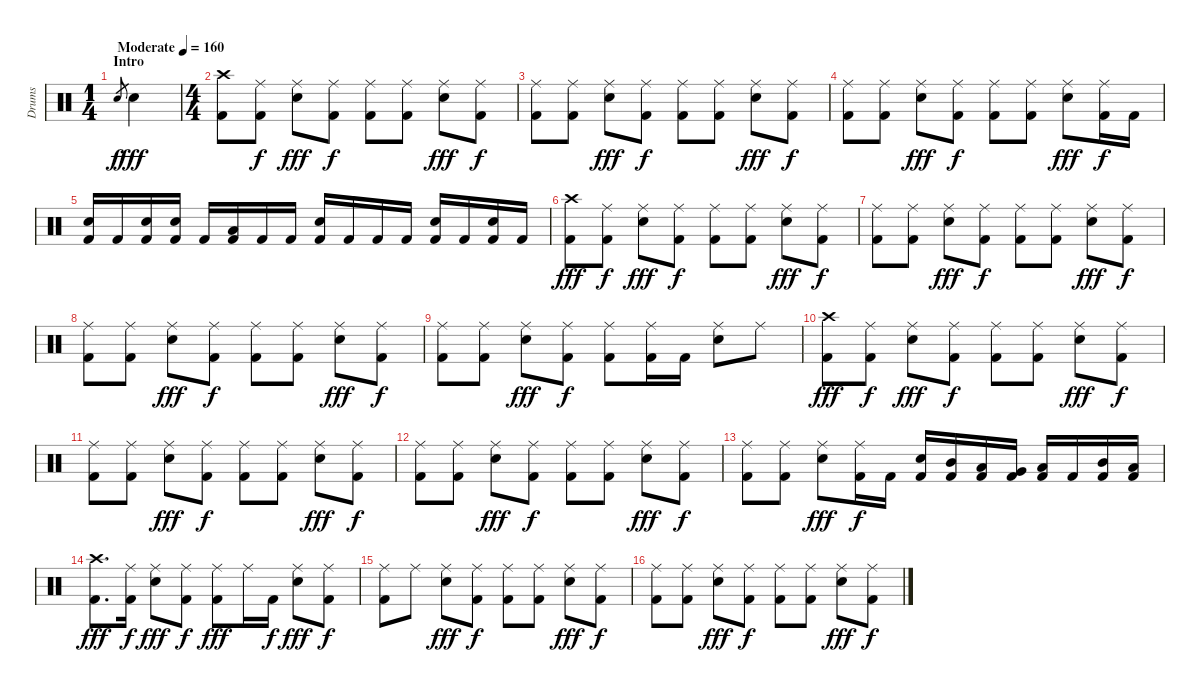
\track ("Drums" "Drums") {instrument percussion}
\staff {score}
\articulation defaults
\ts (1 4)
\section ("" "Intro")
\tempo (160 "Moderate")
\clef neutral
\ks c "Snare (hit) 2".8{gr dy f} "Snare (hit) 2".4{dy fff}
|
\ts (4 4)
("Kick (hit) 2" "Crash high (hit)").8 ("Kick (hit) 2" "Ride (middle)").8{dy f} ("Snare (hit) 2" "Ride (middle)").8{dy fff} ("Kick (hit) 2" "Ride (middle)").8{dy f} ("Kick (hit) 2" "Ride (middle)").8 ("Kick (hit) 2" "Ride (middle)").8 ("Snare (hit) 2" "Ride (middle)").8{dy fff} ("Kick (hit) 2" "Ride (middle)").8{dy f} |
("Kick (hit) 2" "Ride (middle)").8 ("Kick (hit) 2" "Ride (middle)").8 ("Snare (hit) 2" "Ride (middle)").8{dy fff} ("Kick (hit) 2" "Ride (middle)").8{dy f} ("Kick (hit) 2" "Ride (middle)").8 ("Kick (hit) 2" "Ride (middle)").8 ("Snare (hit) 2" "Ride (middle)").8{dy fff} ("Kick (hit) 2" "Ride (middle)").8{dy f} |
("Kick (hit) 2" "Ride (middle)").8 ("Kick (hit) 2" "Ride (middle)").8 ("Snare (hit) 2" "Ride (middle)").8{dy fff} ("Kick (hit) 2" "Ride (middle)").8{dy f} ("Kick (hit) 2" "Ride (middle)").8 ("Kick (hit) 2" "Ride (middle)").8 ("Snare (hit) 2" "Ride (middle)").8{dy fff} ("Kick (hit) 2" "Ride (middle)").16{dy f} "Kick (hit) 2".16 |
("Snare (hit) 2" "Kick (hit) 2").16 "Kick (hit) 2".16 ("Kick (hit) 2" "Snare (hit) 2").16 ("Kick (hit) 2" "Snare (hit) 2").16 "Kick (hit) 2".16 ("Kick (hit) 2" "Low Tom (hit)").16 "Kick (hit) 2".16 "Kick (hit) 2".16 ("Kick (hit) 2" "Snare (hit) 2").16 "Kick (hit) 2".16 "Kick (hit) 2".16 "Kick (hit) 2".16 ("Kick (hit) 2" "Snare (hit) 2").16 "Kick (hit) 2".16 ("Kick (hit) 2" "Snare (hit) 2").16 "Kick (hit) 2".16 |
("Kick (hit) 2" "Crash high (hit)").8{dy fff} ("Kick (hit) 2" "Ride (middle)").8{dy f} ("Snare (hit) 2" "Ride (middle)").8{dy fff} ("Kick (hit) 2" "Ride (middle)").8{dy f} ("Kick (hit) 2" "Ride (middle)").8 ("Kick (hit) 2" "Ride (middle)").8 ("Snare (hit) 2" "Ride (middle)").8{dy fff} ("Kick (hit) 2" "Ride (middle)").8{dy f} |
("Kick (hit) 2" "Ride (middle)").8 ("Kick (hit) 2" "Ride (middle)").8 ("Snare (hit) 2" "Ride (middle)").8{dy fff} ("Kick (hit) 2" "Ride (middle)").8{dy f} ("Kick (hit) 2" "Ride (middle)").8 ("Kick (hit) 2" "Ride (middle)").8 ("Snare (hit) 2" "Ride (middle)").8{dy fff} ("Kick (hit) 2" "Ride (middle)").8{dy f} |
("Kick (hit) 2" "Ride (middle)").8 ("Kick (hit) 2" "Ride (middle)").8 ("Snare (hit) 2" "Ride (middle)").8{dy fff} ("Kick (hit) 2" "Ride (middle)").8{dy f} ("Kick (hit) 2" "Ride (middle)").8 ("Kick (hit) 2" "Ride (middle)").8 ("Snare (hit) 2" "Ride (middle)").8{dy fff} ("Kick (hit) 2" "Ride (middle)").8{dy f} |
("Kick (hit) 2" "Ride (middle)").8 ("Kick (hit) 2" "Ride (middle)").8 ("Snare (hit) 2" "Ride (middle)").8{dy fff} ("Kick (hit) 2" "Ride (middle)").8{dy f} ("Kick (hit) 2" "Ride (middle)").8 ("Kick (hit) 2" "Ride (middle)").16 "Kick (hit) 2".16 ("Snare (hit) 2" "Ride (middle)").8 "Ride (middle)".8 |
("Kick (hit) 2" "Crash high (hit)").8{dy fff} ("Kick (hit) 2" "Ride (middle)").8{dy f} ("Snare (hit) 2" "Ride (middle)").8{dy fff} ("Kick (hit) 2" "Ride (middle)").8{dy f} ("Kick (hit) 2" "Ride (middle)").8 ("Kick (hit) 2" "Ride (middle)").8 ("Snare (hit) 2" "Ride (middle)").8{dy fff} ("Kick (hit) 2" "Ride (middle)").8{dy f} |
("Kick (hit) 2" "Ride (middle)").8 ("Kick (hit) 2" "Ride (middle)").8 ("Snare (hit) 2" "Ride (middle)").8{dy fff} ("Kick (hit) 2" "Ride (middle)").8{dy f} ("Kick (hit) 2" "Ride (middle)").8 ("Kick (hit) 2" "Ride (middle)").8 ("Snare (hit) 2" "Ride (middle)").8{dy fff} ("Kick (hit) 2" "Ride (middle)").8{dy f} |
("Kick (hit) 2" "Ride (middle)").8 ("Kick (hit) 2" "Ride (middle)").8 ("Snare (hit) 2" "Ride (middle)").8{dy fff} ("Kick (hit) 2" "Ride (middle)").8{dy f} ("Kick (hit) 2" "Ride (middle)").8 ("Kick (hit) 2" "Ride (middle)").8 ("Snare (hit) 2" "Ride (middle)").8{dy fff} ("Kick (hit) 2" "Ride (middle)").8{dy f} |
("Kick (hit) 2" "Ride (middle)").8 ("Kick (hit) 2" "Ride (middle)").8 ("Snare (hit) 2" "Ride (middle)").8{dy fff} ("Kick (hit) 2" "Ride (middle)").16{dy f} "Kick (hit) 2".16 ("Kick (hit) 2" "Snare (hit) 2").16 ("Kick (hit) 2" "Mid Tom (hit)").16 ("Kick (hit) 2" "Low Tom (hit)").16 ("Kick (hit) 2" "Very Low Tom (hit)").16 ("Kick (hit) 2" "Low Floor Tom (hit)").16 "Kick (hit) 2".16 ("Kick (hit) 2" "Mid Tom (hit)").16 ("Kick (hit) 2" "Low Tom (hit)").16 |
("Kick (hit) 2" "Crash high (hit)").8{d dy fff} ("Kick (hit) 2" "Ride (middle)").16{dy f} ("Snare (hit) 2" "Ride (middle)").8{dy fff} ("Kick (hit) 2" "Ride (middle)").8{dy f} ("Kick (hit) 2" "Ride (middle)").8{dy fff} "Ride (middle)".16 "Kick (hit) 2".16{dy f} ("Snare (hit) 2" "Ride (middle)").8{dy fff} ("Kick (hit) 2" "Ride (middle)").8{dy f} |
("Kick (hit) 2" "Ride (middle)").8 "Ride (middle)".8 ("Snare (hit) 2" "Ride (middle)").8{dy fff} ("Kick (hit) 2" "Ride (middle)").8{dy f} ("Kick (hit) 2" "Ride (middle)").8 ("Kick (hit) 2" "Ride (middle)").8 ("Snare (hit) 2" "Ride (middle)").8{dy fff} ("Kick (hit) 2" "Ride (middle)").8{dy f} |
("Kick (hit) 2" "Ride (middle)").8 ("Kick (hit) 2" "Ride (middle)").8 ("Snare (hit) 2" "Ride (middle)").8{dy fff} ("Kick (hit) 2" "Ride (middle)").8{dy f} ("Kick (hit) 2" "Ride (middle)").8 ("Kick (hit) 2" "Ride (middle)").8 ("Snare (hit) 2" "Ride (middle)").8{dy fff} ("Kick (hit) 2" "Ride (middle)").8{dy f}
